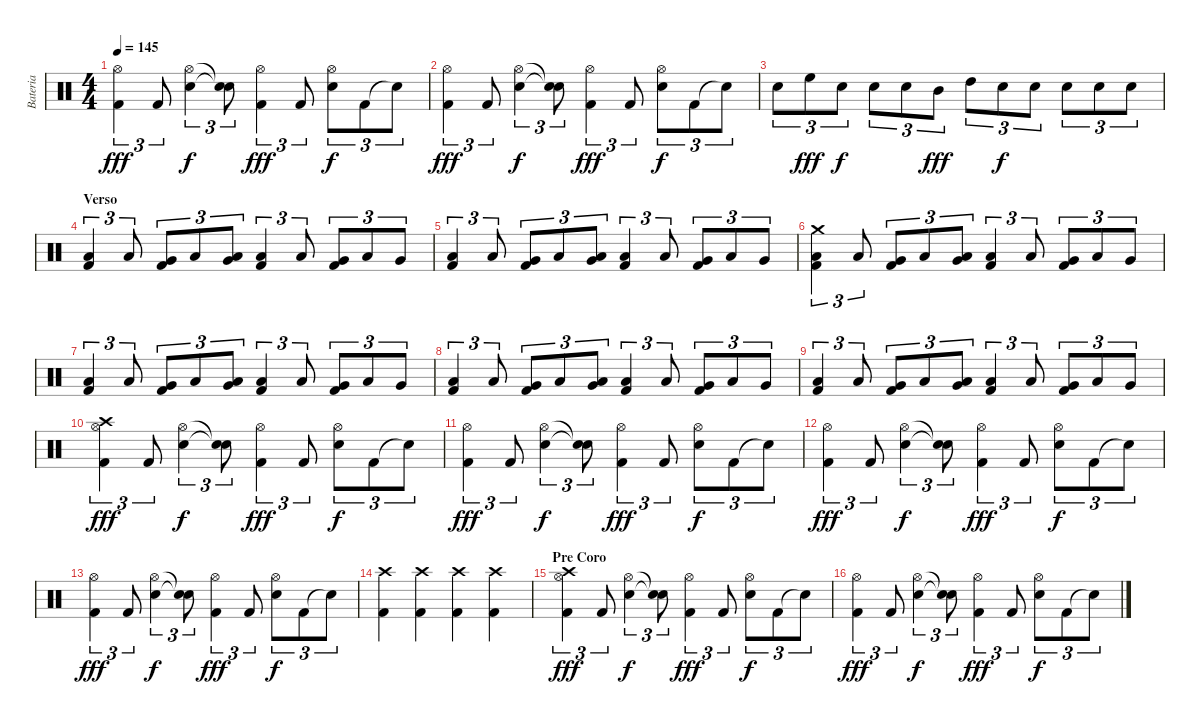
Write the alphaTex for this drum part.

\track ("Bateria" "Bateria") {instrument percussion}
\staff {score}
\articulation defaults
\ts (4 4)
\tempo 145
\clef neutral
\ks c
("Hi-Hat (open)" "Kick (hit) 2").4{tu (3 2) dy fff} "Kick (hit) 2".8{tu (3 2)} ("Hi-Hat (open)" "Snare (hit) 2").4{tu (3 2) dy f} ("Snare (hit)"{t} "Snare (hit)"{t}).8{tu (3 2)} ("Hi-Hat (open)" "Kick (hit) 2").4{tu (3 2) dy fff} "Kick (hit) 2".8{tu (3 2)} ("Hi-Hat (open)" "Snare (hit) 2").8{tu (3 2) dy f} "Kick (hit) 2".8{tu (3 2)} "Snare (hit)"{t}.8{tu (3 2)} |
("Hi-Hat (open)" "Kick (hit) 2").4{tu (3 2) dy fff} "Kick (hit) 2".8{tu (3 2)} ("Hi-Hat (open)" "Snare (hit) 2").4{tu (3 2) dy f} ("Snare (hit)"{t} "Snare (hit)"{t}).8{tu (3 2)} ("Hi-Hat (open)" "Kick (hit) 2").4{tu (3 2) dy fff} "Kick (hit) 2".8{tu (3 2)} ("Hi-Hat (open)" "Snare (hit) 2").8{tu (3 2) dy f} "Kick (hit) 2".8{tu (3 2)} "Snare (hit)"{t}.8{tu (3 2)} |
"Snare (hit) 2".8{tu (3 2)} "High Floor Tom (hit)".8{tu (3 2) dy fff} "Snare (hit) 2".8{tu (3 2) dy f} "Snare (hit) 2".8{tu (3 2)} "Snare (hit) 2".8{tu (3 2)} "Mid Tom (hit)".8{tu (3 2) dy fff} "High Tom (hit)".8{tu (3 2)} "Snare (hit) 2".8{tu (3 2) dy f} "Snare (hit) 2".8{tu (3 2)} "Snare (hit) 2".8{tu (3 2)} "Snare (hit) 2".8{tu (3 2)} "Snare (hit) 2".8{tu (3 2)} |
\section ("" "Verso")
("Kick (hit) 2" "Low Floor Tom (hit)").4{tu (3 2)} "Low Floor Tom (hit)".8{tu (3 2)} ("Kick (hit) 2" "Very Low Tom (hit)").8{tu (3 2)} "Low Floor Tom (hit)".8{tu (3 2)} ("Very Low Tom (hit)" "Low Tom (hit)").8{tu (3 2)} ("Kick (hit) 2" "Low Floor Tom (hit)").4{tu (3 2)} "Low Floor Tom (hit)".8{tu (3 2)} ("Kick (hit) 2" "Very Low Tom (hit)").8{tu (3 2)} "Low Floor Tom (hit)".8{tu (3 2)} "Very Low Tom (hit)".8{tu (3 2)} |
("Kick (hit) 2" "Low Floor Tom (hit)").4{tu (3 2)} "Low Floor Tom (hit)".8{tu (3 2)} ("Kick (hit) 2" "Very Low Tom (hit)").8{tu (3 2)} "Low Floor Tom (hit)".8{tu (3 2)} ("Very Low Tom (hit)" "Low Tom (hit)").8{tu (3 2)} ("Kick (hit) 2" "Low Floor Tom (hit)").4{tu (3 2)} "Low Floor Tom (hit)".8{tu (3 2)} ("Kick (hit) 2" "Very Low Tom (hit)").8{tu (3 2)} "Low Floor Tom (hit)".8{tu (3 2)} "Very Low Tom (hit)".8{tu (3 2)} |
("Kick (hit) 2" "Low Floor Tom (hit)" "Crash medium (hit)").4{tu (3 2)} "Low Floor Tom (hit)".8{tu (3 2)} ("Kick (hit) 2" "Very Low Tom (hit)").8{tu (3 2)} "Low Floor Tom (hit)".8{tu (3 2)} ("Very Low Tom (hit)" "Low Tom (hit)").8{tu (3 2)} ("Kick (hit) 2" "Low Floor Tom (hit)").4{tu (3 2)} "Low Floor Tom (hit)".8{tu (3 2)} ("Kick (hit) 2" "Very Low Tom (hit)").8{tu (3 2)} "Low Floor Tom (hit)".8{tu (3 2)} "Very Low Tom (hit)".8{tu (3 2)} |
("Kick (hit) 2" "Low Floor Tom (hit)").4{tu (3 2)} "Low Floor Tom (hit)".8{tu (3 2)} ("Kick (hit) 2" "Very Low Tom (hit)").8{tu (3 2)} "Low Floor Tom (hit)".8{tu (3 2)} ("Very Low Tom (hit)" "Low Tom (hit)").8{tu (3 2)} ("Kick (hit) 2" "Low Floor Tom (hit)").4{tu (3 2)} "Low Floor Tom (hit)".8{tu (3 2)} ("Kick (hit) 2" "Very Low Tom (hit)").8{tu (3 2)} "Low Floor Tom (hit)".8{tu (3 2)} "Very Low Tom (hit)".8{tu (3 2)} |
("Kick (hit) 2" "Low Floor Tom (hit)").4{tu (3 2)} "Low Floor Tom (hit)".8{tu (3 2)} ("Kick (hit) 2" "Very Low Tom (hit)").8{tu (3 2)} "Low Floor Tom (hit)".8{tu (3 2)} ("Very Low Tom (hit)" "Low Tom (hit)").8{tu (3 2)} ("Kick (hit) 2" "Low Floor Tom (hit)").4{tu (3 2)} "Low Floor Tom (hit)".8{tu (3 2)} ("Kick (hit) 2" "Very Low Tom (hit)").8{tu (3 2)} "Low Floor Tom (hit)".8{tu (3 2)} "Very Low Tom (hit)".8{tu (3 2)} |
("Kick (hit) 2" "Low Floor Tom (hit)").4{tu (3 2)} "Low Floor Tom (hit)".8{tu (3 2)} ("Kick (hit) 2" "Very Low Tom (hit)").8{tu (3 2)} "Low Floor Tom (hit)".8{tu (3 2)} ("Very Low Tom (hit)" "Low Tom (hit)").8{tu (3 2)} ("Kick (hit) 2" "Low Floor Tom (hit)").4{tu (3 2)} "Low Floor Tom (hit)".8{tu (3 2)} ("Kick (hit) 2" "Very Low Tom (hit)").8{tu (3 2)} "Low Floor Tom (hit)".8{tu (3 2)} "Very Low Tom (hit)".8{tu (3 2)} |
("Hi-Hat (open)" "Kick (hit) 2" "Crash high (hit)").4{tu (3 2) dy fff} "Kick (hit) 2".8{tu (3 2)} ("Hi-Hat (open)" "Snare (hit) 2").4{tu (3 2) dy f} ("Snare (hit)"{t} "Snare (hit)"{t}).8{tu (3 2)} ("Hi-Hat (open)" "Kick (hit) 2").4{tu (3 2) dy fff} "Kick (hit) 2".8{tu (3 2)} ("Hi-Hat (open)" "Snare (hit) 2").8{tu (3 2) dy f} "Kick (hit) 2".8{tu (3 2)} "Snare (hit)"{t}.8{tu (3 2)} |
("Hi-Hat (open)" "Kick (hit) 2").4{tu (3 2) dy fff} "Kick (hit) 2".8{tu (3 2)} ("Hi-Hat (open)" "Snare (hit) 2").4{tu (3 2) dy f} ("Snare (hit)"{t} "Snare (hit)"{t}).8{tu (3 2)} ("Hi-Hat (open)" "Kick (hit) 2").4{tu (3 2) dy fff} "Kick (hit) 2".8{tu (3 2)} ("Hi-Hat (open)" "Snare (hit) 2").8{tu (3 2) dy f} "Kick (hit) 2".8{tu (3 2)} "Snare (hit)"{t}.8{tu (3 2)} |
("Hi-Hat (open)" "Kick (hit) 2").4{tu (3 2) dy fff} "Kick (hit) 2".8{tu (3 2)} ("Hi-Hat (open)" "Snare (hit) 2").4{tu (3 2) dy f} ("Snare (hit)"{t} "Snare (hit)"{t}).8{tu (3 2)} ("Hi-Hat (open)" "Kick (hit) 2").4{tu (3 2) dy fff} "Kick (hit) 2".8{tu (3 2)} ("Hi-Hat (open)" "Snare (hit) 2").8{tu (3 2) dy f} "Kick (hit) 2".8{tu (3 2)} "Snare (hit)"{t}.8{tu (3 2)} |
("Hi-Hat (open)" "Kick (hit) 2").4{tu (3 2) dy fff} "Kick (hit) 2".8{tu (3 2)} ("Hi-Hat (open)" "Snare (hit) 2").4{tu (3 2) dy f} ("Snare (hit)"{t} "Snare (hit)"{t}).8{tu (3 2)} ("Hi-Hat (open)" "Kick (hit) 2").4{tu (3 2) dy fff} "Kick (hit) 2".8{tu (3 2)} ("Hi-Hat (open)" "Snare (hit) 2").8{tu (3 2) dy f} "Kick (hit) 2".8{tu (3 2)} "Snare (hit)"{t}.8{tu (3 2)} |
("Kick (hit) 2" "Crash high (hit)").4 ("Kick (hit) 2" "Crash high (hit)").4 ("Kick (hit) 2" "Crash high (hit)").4 ("Kick (hit) 2" "Crash high (hit)").4 |
\section ("" "Pre Coro")
("Hi-Hat (open)" "Kick (hit) 2" "Crash high (hit)").4{tu (3 2) dy fff} "Kick (hit) 2".8{tu (3 2)} ("Hi-Hat (open)" "Snare (hit) 2").4{tu (3 2) dy f} ("Snare (hit)"{t} "Snare (hit)"{t}).8{tu (3 2)} ("Hi-Hat (open)" "Kick (hit) 2").4{tu (3 2) dy fff} "Kick (hit) 2".8{tu (3 2)} ("Hi-Hat (open)" "Snare (hit) 2").8{tu (3 2) dy f} "Kick (hit) 2".8{tu (3 2)} "Snare (hit)"{t}.8{tu (3 2)} |
("Hi-Hat (open)" "Kick (hit) 2").4{tu (3 2) dy fff} "Kick (hit) 2".8{tu (3 2)} ("Hi-Hat (open)" "Snare (hit) 2").4{tu (3 2) dy f} ("Snare (hit)"{t} "Snare (hit)"{t}).8{tu (3 2)} ("Hi-Hat (open)" "Kick (hit) 2").4{tu (3 2) dy fff} "Kick (hit) 2".8{tu (3 2)} ("Hi-Hat (open)" "Snare (hit) 2").8{tu (3 2) dy f} "Kick (hit) 2".8{tu (3 2)} "Snare (hit)"{t}.8{tu (3 2)}
